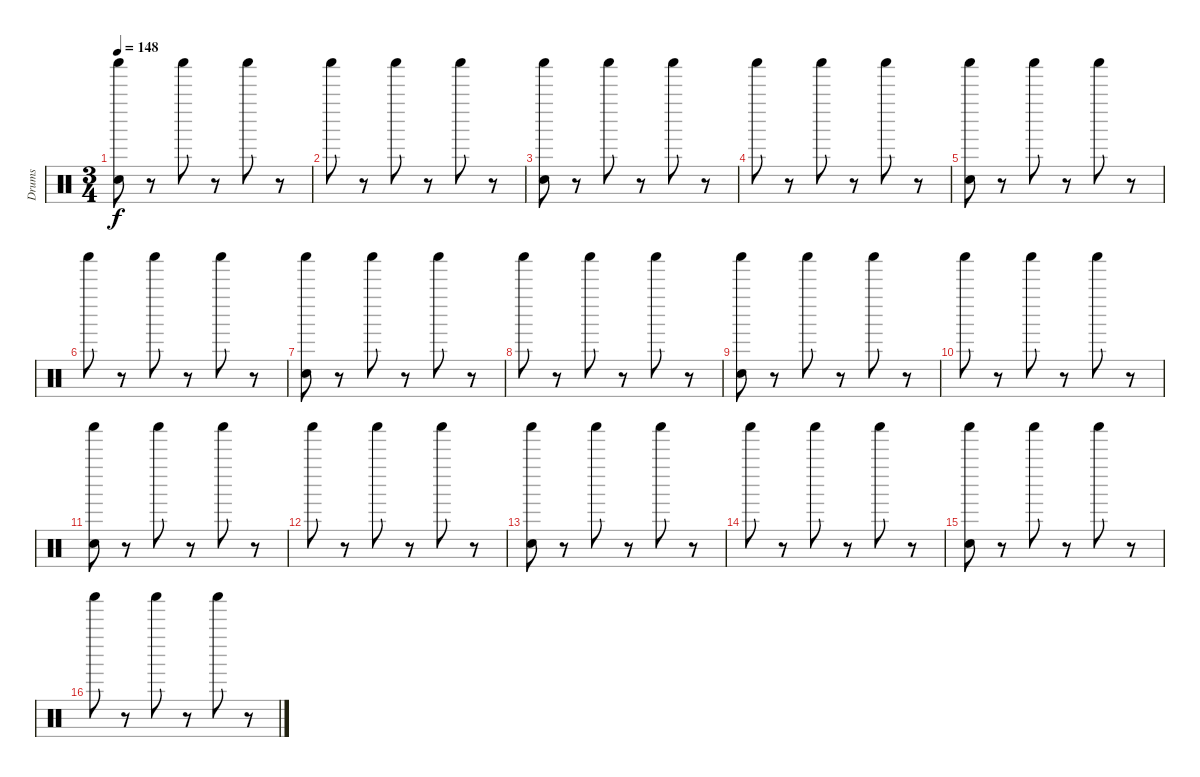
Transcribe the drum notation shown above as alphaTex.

\track ("Drums" "Drums") {instrument percussion bank 1}
\staff {score}
\articulation defaults
\ts (3 4)
\tempo 148
\clef neutral
\ks c
("Shaker (hit)" "Hand Clap (hit)").8{dy f} r.8 "Shaker (hit)".8 r.8 "Shaker (hit)".8 r.8 |
"Shaker (hit)".8 r.8 "Shaker (hit)".8 r.8 "Shaker (hit)".8 r.8 |
("Shaker (hit)" "Hand Clap (hit)").8 r.8 "Shaker (hit)".8 r.8 "Shaker (hit)".8 r.8 |
"Shaker (hit)".8 r.8 "Shaker (hit)".8 r.8 "Shaker (hit)".8 r.8 |
("Shaker (hit)" "Hand Clap (hit)").8 r.8 "Shaker (hit)".8 r.8 "Shaker (hit)".8 r.8 |
"Shaker (hit)".8 r.8 "Shaker (hit)".8 r.8 "Shaker (hit)".8 r.8 |
("Shaker (hit)" "Hand Clap (hit)").8 r.8 "Shaker (hit)".8 r.8 "Shaker (hit)".8 r.8 |
"Shaker (hit)".8 r.8 "Shaker (hit)".8 r.8 "Shaker (hit)".8 r.8 |
("Shaker (hit)" "Hand Clap (hit)").8 r.8 "Shaker (hit)".8 r.8 "Shaker (hit)".8 r.8 |
"Shaker (hit)".8 r.8 "Shaker (hit)".8 r.8 "Shaker (hit)".8 r.8 |
("Shaker (hit)" "Hand Clap (hit)").8 r.8 "Shaker (hit)".8 r.8 "Shaker (hit)".8 r.8 |
"Shaker (hit)".8 r.8 "Shaker (hit)".8 r.8 "Shaker (hit)".8 r.8 |
("Shaker (hit)" "Hand Clap (hit)").8 r.8 "Shaker (hit)".8 r.8 "Shaker (hit)".8 r.8 |
"Shaker (hit)".8 r.8 "Shaker (hit)".8 r.8 "Shaker (hit)".8 r.8 |
("Shaker (hit)" "Hand Clap (hit)").8 r.8 "Shaker (hit)".8 r.8 "Shaker (hit)".8 r.8 |
"Shaker (hit)".8 r.8 "Shaker (hit)".8 r.8 "Shaker (hit)".8 r.8
